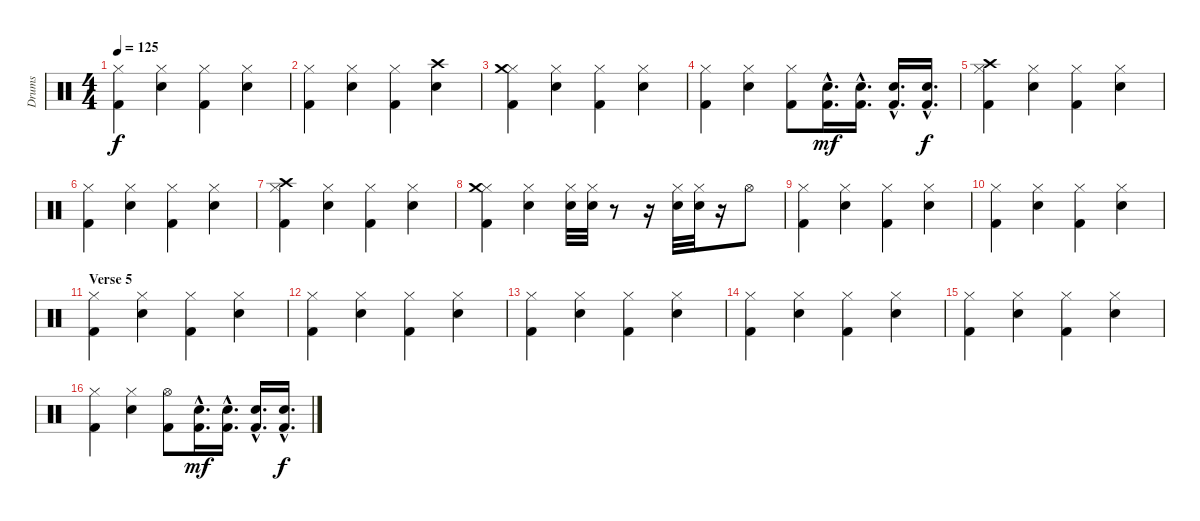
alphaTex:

\track ("Drums" "Drums") {instrument percussion}
\staff {score}
\articulation defaults
\ts (4 4)
\tempo 125
\clef neutral
\ks c
("Hi-Hat (closed)" "Kick (hit) 2").4{dy f} ("Hi-Hat (closed)" "Electric Snare (hit)").4 ("Hi-Hat (closed)" "Kick (hit) 2").4 ("Hi-Hat (closed)" "Electric Snare (hit)").4 |
("Hi-Hat (closed)" "Kick (hit) 2").4 ("Hi-Hat (closed)" "Electric Snare (hit)").4 ("Hi-Hat (closed)" "Kick (hit) 2").4 ("Crash high (hit)" "Electric Snare (hit)").4 |
("Hi-Hat (closed)" "Crash medium (hit)" "Kick (hit) 2").4 ("Hi-Hat (closed)" "Electric Snare (hit)").4 ("Hi-Hat (closed)" "Kick (hit) 2").4 ("Hi-Hat (closed)" "Electric Snare (hit)").4 |
("Hi-Hat (closed)" "Kick (hit) 2").4 ("Hi-Hat (closed)" "Electric Snare (hit)").4 ("Hi-Hat (closed)" "Kick (hit) 2").8 ("Electric Snare (hit)"{hac} "Kick (hit) 2"{hac}).16{d dy mf} ("Electric Snare (hit)"{hac} "Kick (hit) 2"{hac}).16{d} ("Electric Snare (hit)"{hac} "Kick (hit) 2"{hac}).16{d} ("Electric Snare (hit)"{hac} "Kick (hit) 2"{hac}).16{d dy f} |
("Hi-Hat (closed)" "Crash high (hit)" "Kick (hit) 2").4 ("Hi-Hat (closed)" "Electric Snare (hit)").4 ("Hi-Hat (closed)" "Kick (hit) 2").4 ("Hi-Hat (closed)" "Electric Snare (hit)").4 |
("Hi-Hat (closed)" "Kick (hit) 2").4 ("Hi-Hat (closed)" "Electric Snare (hit)").4 ("Hi-Hat (closed)" "Kick (hit) 2").4 ("Hi-Hat (closed)" "Electric Snare (hit)").4 |
("Hi-Hat (closed)" "Crash high (hit)" "Kick (hit) 2").4 ("Hi-Hat (closed)" "Electric Snare (hit)").4 ("Hi-Hat (closed)" "Kick (hit) 2").4 ("Hi-Hat (closed)" "Electric Snare (hit)").4 |
("Hi-Hat (closed)" "Crash medium (hit)" "Kick (hit) 2").4 ("Hi-Hat (closed)" "Electric Snare (hit)").4 ("Hi-Hat (closed)" "Electric Snare (hit)").32 ("Hi-Hat (closed)" "Electric Snare (hit)").32 r.8 r.16 ("Hi-Hat (closed)" "Electric Snare (hit)").32 ("Hi-Hat (closed)" "Electric Snare (hit)").32 r.16 "Hi-Hat (open)".8 |
("Hi-Hat (closed)" "Kick (hit) 2").4 ("Hi-Hat (closed)" "Electric Snare (hit)").4 ("Hi-Hat (closed)" "Kick (hit) 2").4 ("Hi-Hat (closed)" "Electric Snare (hit)").4 |
("Hi-Hat (closed)" "Kick (hit) 2").4 ("Hi-Hat (closed)" "Electric Snare (hit)").4 ("Hi-Hat (closed)" "Kick (hit) 2").4 ("Hi-Hat (closed)" "Electric Snare (hit)").4 |
\section ("" "Verse 5")
("Hi-Hat (closed)" "Kick (hit) 2").4 ("Hi-Hat (closed)" "Electric Snare (hit)").4 ("Hi-Hat (closed)" "Kick (hit) 2").4 ("Hi-Hat (closed)" "Electric Snare (hit)").4 |
("Hi-Hat (closed)" "Kick (hit) 2").4 ("Hi-Hat (closed)" "Electric Snare (hit)").4 ("Hi-Hat (closed)" "Kick (hit) 2").4 ("Hi-Hat (closed)" "Electric Snare (hit)").4 |
("Hi-Hat (closed)" "Kick (hit) 2").4 ("Hi-Hat (closed)" "Electric Snare (hit)").4 ("Hi-Hat (closed)" "Kick (hit) 2").4 ("Hi-Hat (closed)" "Electric Snare (hit)").4 |
("Hi-Hat (closed)" "Kick (hit) 2").4 ("Hi-Hat (closed)" "Electric Snare (hit)").4 ("Hi-Hat (closed)" "Kick (hit) 2").4 ("Hi-Hat (closed)" "Electric Snare (hit)").4 |
("Hi-Hat (closed)" "Kick (hit) 2").4 ("Hi-Hat (closed)" "Electric Snare (hit)").4 ("Hi-Hat (closed)" "Kick (hit) 2").4 ("Hi-Hat (closed)" "Electric Snare (hit)").4 |
("Hi-Hat (closed)" "Kick (hit) 2").4 ("Hi-Hat (closed)" "Electric Snare (hit)").4 ("Hi-Hat (open)" "Kick (hit) 2").8 ("Electric Snare (hit)"{hac} "Kick (hit) 2"{hac}).16{d dy mf} ("Electric Snare (hit)"{hac} "Kick (hit) 2"{hac}).16{d} ("Electric Snare (hit)"{hac} "Kick (hit) 2"{hac}).16{d} ("Electric Snare (hit)"{hac} "Kick (hit) 2"{hac}).16{d dy f}
